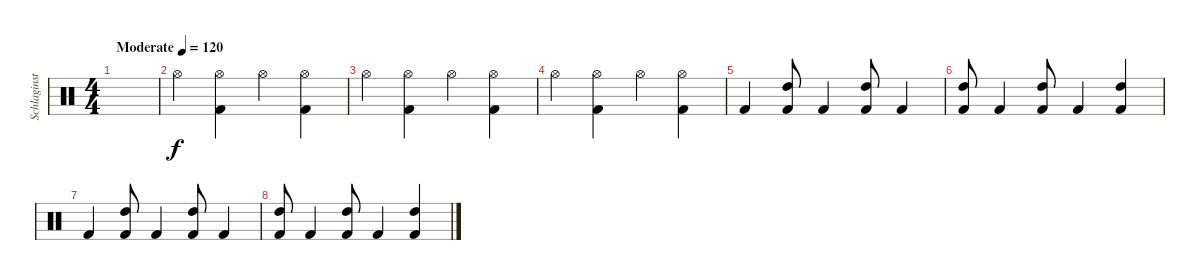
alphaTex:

\track ("Schlaginstrumente - Auswahl" "Schlaginst") {instrument percussion}
\staff {score}
\articulation defaults
\ts (4 4)
\tempo (120 "Moderate")
\clef neutral
\ks c
|
"Hi-Hat (open)".4 ("Hi-Hat (open)" "Kick (hit) 2").4 "Hi-Hat (open)".4 ("Hi-Hat (open)" "Kick (hit) 2").4 |
"Hi-Hat (open)".4 ("Hi-Hat (open)" "Kick (hit) 2").4 "Hi-Hat (open)".4 ("Hi-Hat (open)" "Kick (hit) 2").4 |
"Hi-Hat (open)".4 ("Hi-Hat (open)" "Kick (hit) 2").4 "Hi-Hat (open)".4 ("Hi-Hat (open)" "Kick (hit) 2").4 |
"Kick (hit) 2".4{volume 16} ("Kick (hit) 2" "High Tom (hit)").8 "Kick (hit) 2".4 ("Kick (hit) 2" "High Tom (hit)").8 "Kick (hit) 2".4 |
("Kick (hit) 2" "High Tom (hit)").8 "Kick (hit) 2".4 ("Kick (hit) 2" "High Tom (hit)").8 "Kick (hit) 2".4 ("Kick (hit) 2" "High Tom (hit)").4 |
"Kick (hit) 2".4{volume 16} ("Kick (hit) 2" "High Tom (hit)").8 "Kick (hit) 2".4 ("Kick (hit) 2" "High Tom (hit)").8 "Kick (hit) 2".4 |
("Kick (hit) 2" "High Tom (hit)").8 "Kick (hit) 2".4 ("Kick (hit) 2" "High Tom (hit)").8 "Kick (hit) 2".4 ("Kick (hit) 2" "High Tom (hit)").4
